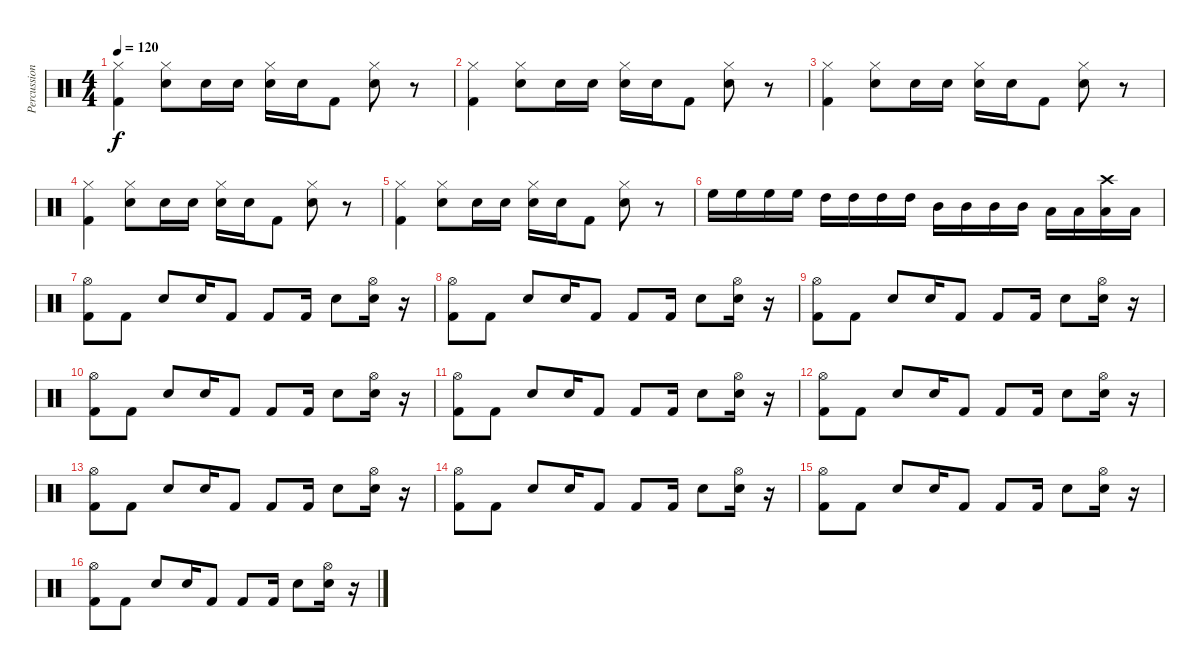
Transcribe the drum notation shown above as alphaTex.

\track ("Percussion - CJ" "Percussion") {instrument percussion}
\staff {score}
\articulation defaults
\ts (4 4)
\tempo 120
\clef neutral
\ks c
("Kick (hit) 2" "Hi-Hat (closed)").4{dy f} ("Snare (hit) 2" "Hi-Hat (closed)").8 "Snare (hit) 2".16 "Snare (hit) 2".16 ("Snare (hit) 2" "Hi-Hat (closed)").16 "Snare (hit) 2".16 "Kick (hit) 2".8 ("Snare (hit) 2" "Hi-Hat (closed)").8 r.8 |
("Kick (hit) 2" "Hi-Hat (closed)").4 ("Snare (hit) 2" "Hi-Hat (closed)").8 "Snare (hit) 2".16 "Snare (hit) 2".16 ("Snare (hit) 2" "Hi-Hat (closed)").16 "Snare (hit) 2".16 "Kick (hit) 2".8 ("Snare (hit) 2" "Hi-Hat (closed)").8 r.8 |
("Kick (hit) 2" "Hi-Hat (closed)").4 ("Snare (hit) 2" "Hi-Hat (closed)").8 "Snare (hit) 2".16 "Snare (hit) 2".16 ("Snare (hit) 2" "Hi-Hat (closed)").16 "Snare (hit) 2".16 "Kick (hit) 2".8 ("Snare (hit) 2" "Hi-Hat (closed)").8 r.8 |
("Kick (hit) 2" "Hi-Hat (closed)").4 ("Snare (hit) 2" "Hi-Hat (closed)").8 "Snare (hit) 2".16 "Snare (hit) 2".16 ("Snare (hit) 2" "Hi-Hat (closed)").16 "Snare (hit) 2".16 "Kick (hit) 2".8 ("Snare (hit) 2" "Hi-Hat (closed)").8 r.8 |
("Kick (hit) 2" "Hi-Hat (closed)").4 ("Snare (hit) 2" "Hi-Hat (closed)").8 "Snare (hit) 2".16 "Snare (hit) 2".16 ("Snare (hit) 2" "Hi-Hat (closed)").16 "Snare (hit) 2".16 "Kick (hit) 2".8 ("Snare (hit) 2" "Hi-Hat (closed)").8 r.8 |
"High Floor Tom (hit)".16 "High Floor Tom (hit)".16 "High Floor Tom (hit)".16 "High Floor Tom (hit)".16 "High Tom (hit)".16 "High Tom (hit)".16 "High Tom (hit)".16 "High Tom (hit)".16 "Mid Tom (hit)".16 "Mid Tom (hit)".16 "Mid Tom (hit)".16 "Mid Tom (hit)".16 "Low Tom (hit)".16 "Low Tom (hit)".16 ("Crash high (hit)" "Low Tom (hit)").16 "Low Tom (hit)".16 |
("Kick (hit) 2" "Hi-Hat (open)").8 "Kick (hit) 2".8 "Electric Snare (hit)".8 "Electric Snare (hit)".16 "Kick (hit) 2".8 "Kick (hit) 2".8 "Kick (hit) 2".16 "Electric Snare (hit)".8 ("Electric Snare (hit)" "Hi-Hat (open)").16 r.16 |
("Kick (hit) 2" "Hi-Hat (open)").8 "Kick (hit) 2".8 "Electric Snare (hit)".8 "Electric Snare (hit)".16 "Kick (hit) 2".8 "Kick (hit) 2".8 "Kick (hit) 2".16 "Electric Snare (hit)".8 ("Electric Snare (hit)" "Hi-Hat (open)").16 r.16 |
("Kick (hit) 2" "Hi-Hat (open)").8 "Kick (hit) 2".8 "Electric Snare (hit)".8 "Electric Snare (hit)".16 "Kick (hit) 2".8 "Kick (hit) 2".8 "Kick (hit) 2".16 "Electric Snare (hit)".8 ("Electric Snare (hit)" "Hi-Hat (open)").16 r.16 |
("Kick (hit) 2" "Hi-Hat (open)").8 "Kick (hit) 2".8 "Electric Snare (hit)".8 "Electric Snare (hit)".16 "Kick (hit) 2".8 "Kick (hit) 2".8 "Kick (hit) 2".16 "Electric Snare (hit)".8 ("Electric Snare (hit)" "Hi-Hat (open)").16 r.16 |
("Kick (hit) 2" "Hi-Hat (open)").8 "Kick (hit) 2".8 "Electric Snare (hit)".8 "Electric Snare (hit)".16 "Kick (hit) 2".8 "Kick (hit) 2".8 "Kick (hit) 2".16 "Electric Snare (hit)".8 ("Electric Snare (hit)" "Hi-Hat (open)").16 r.16 |
("Kick (hit) 2" "Hi-Hat (open)").8 "Kick (hit) 2".8 "Electric Snare (hit)".8 "Electric Snare (hit)".16 "Kick (hit) 2".8 "Kick (hit) 2".8 "Kick (hit) 2".16 "Electric Snare (hit)".8 ("Electric Snare (hit)" "Hi-Hat (open)").16 r.16 |
("Kick (hit) 2" "Hi-Hat (open)").8 "Kick (hit) 2".8 "Electric Snare (hit)".8 "Electric Snare (hit)".16 "Kick (hit) 2".8 "Kick (hit) 2".8 "Kick (hit) 2".16 "Electric Snare (hit)".8 ("Electric Snare (hit)" "Hi-Hat (open)").16 r.16 |
("Kick (hit) 2" "Hi-Hat (open)").8 "Kick (hit) 2".8 "Electric Snare (hit)".8 "Electric Snare (hit)".16 "Kick (hit) 2".8 "Kick (hit) 2".8 "Kick (hit) 2".16 "Electric Snare (hit)".8 ("Electric Snare (hit)" "Hi-Hat (open)").16 r.16 |
("Kick (hit) 2" "Hi-Hat (open)").8 "Kick (hit) 2".8 "Electric Snare (hit)".8 "Electric Snare (hit)".16 "Kick (hit) 2".8 "Kick (hit) 2".8 "Kick (hit) 2".16 "Electric Snare (hit)".8 ("Electric Snare (hit)" "Hi-Hat (open)").16 r.16 |
("Kick (hit) 2" "Hi-Hat (open)").8 "Kick (hit) 2".8 "Electric Snare (hit)".8 "Electric Snare (hit)".16 "Kick (hit) 2".8 "Kick (hit) 2".8 "Kick (hit) 2".16 "Electric Snare (hit)".8 ("Electric Snare (hit)" "Hi-Hat (open)").16 r.16
